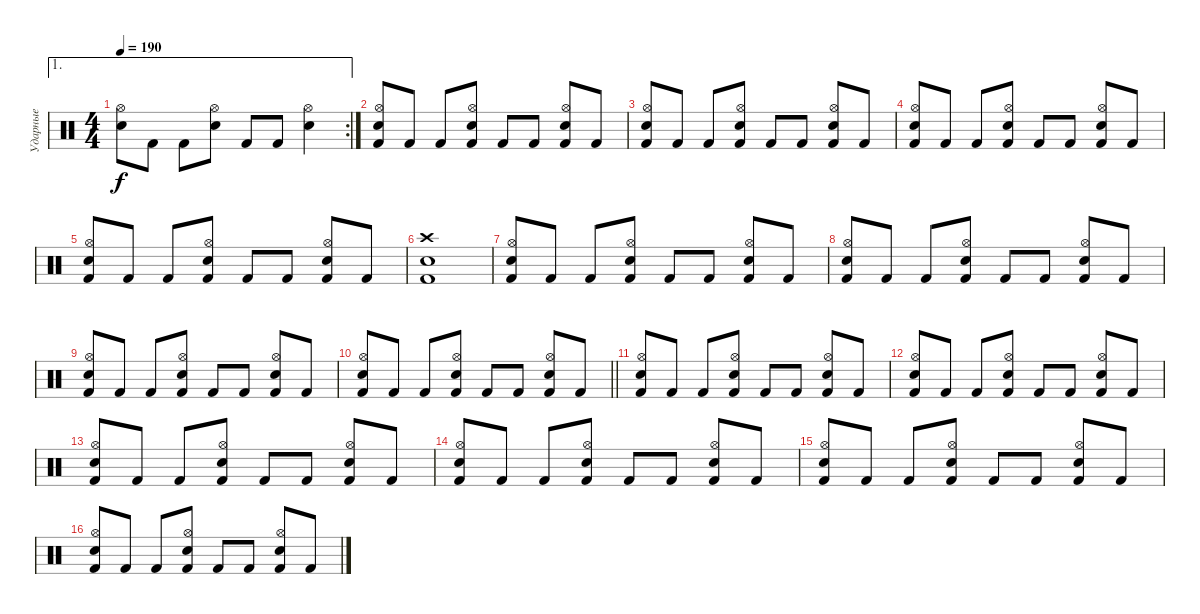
\track ("Ударные" "Ударные") {instrument percussion}
\staff {score}
\articulation defaults
\ae 1
\rc 2
\ts (4 4)
\tempo 190
\clef neutral
\ks c
("Snare (hit) 2" "Hi-Hat (open)").8{dy f} "Kick (hit) 2".8 "Kick (hit) 2".8 ("Snare (hit) 2" "Hi-Hat (open)").8 "Kick (hit) 2".8 "Kick (hit) 2".8 ("Snare (hit) 2" "Hi-Hat (open)").4 |
("Kick (hit) 2" "Snare (hit) 2" "Hi-Hat (open)").8 "Kick (hit) 2".8 "Kick (hit) 2".8 ("Kick (hit) 2" "Snare (hit) 2" "Hi-Hat (open)").8 "Kick (hit) 2".8 "Kick (hit) 2".8 ("Kick (hit) 2" "Snare (hit) 2" "Hi-Hat (open)").8 "Kick (hit) 2".8 |
("Kick (hit) 2" "Snare (hit) 2" "Hi-Hat (open)").8 "Kick (hit) 2".8 "Kick (hit) 2".8 ("Kick (hit) 2" "Snare (hit) 2" "Hi-Hat (open)").8 "Kick (hit) 2".8 "Kick (hit) 2".8 ("Kick (hit) 2" "Snare (hit) 2" "Hi-Hat (open)").8 "Kick (hit) 2".8 |
("Kick (hit) 2" "Snare (hit) 2" "Hi-Hat (open)").8 "Kick (hit) 2".8 "Kick (hit) 2".8 ("Kick (hit) 2" "Snare (hit) 2" "Hi-Hat (open)").8 "Kick (hit) 2".8 "Kick (hit) 2".8 ("Kick (hit) 2" "Snare (hit) 2" "Hi-Hat (open)").8 "Kick (hit) 2".8 |
("Kick (hit) 2" "Snare (hit) 2" "Hi-Hat (open)").8 "Kick (hit) 2".8 "Kick (hit) 2".8 ("Kick (hit) 2" "Snare (hit) 2" "Hi-Hat (open)").8 "Kick (hit) 2".8 "Kick (hit) 2".8 ("Kick (hit) 2" "Snare (hit) 2" "Hi-Hat (open)").8 "Kick (hit) 2".8 |
("Kick (hit) 2" "Snare (hit) 2" "Crash high (hit)").1 |
("Kick (hit) 2" "Snare (hit) 2" "Hi-Hat (open)").8 "Kick (hit) 2".8 "Kick (hit) 2".8 ("Kick (hit) 2" "Snare (hit) 2" "Hi-Hat (open)").8 "Kick (hit) 2".8 "Kick (hit) 2".8 ("Kick (hit) 2" "Snare (hit) 2" "Hi-Hat (open)").8 "Kick (hit) 2".8 |
("Kick (hit) 2" "Snare (hit) 2" "Hi-Hat (open)").8 "Kick (hit) 2".8 "Kick (hit) 2".8 ("Kick (hit) 2" "Snare (hit) 2" "Hi-Hat (open)").8 "Kick (hit) 2".8 "Kick (hit) 2".8 ("Kick (hit) 2" "Snare (hit) 2" "Hi-Hat (open)").8 "Kick (hit) 2".8 |
("Kick (hit) 2" "Snare (hit) 2" "Hi-Hat (open)").8 "Kick (hit) 2".8 "Kick (hit) 2".8 ("Kick (hit) 2" "Snare (hit) 2" "Hi-Hat (open)").8 "Kick (hit) 2".8 "Kick (hit) 2".8 ("Kick (hit) 2" "Snare (hit) 2" "Hi-Hat (open)").8 "Kick (hit) 2".8 |
\barLineRight lightlight
("Kick (hit) 2" "Snare (hit) 2" "Hi-Hat (open)").8 "Kick (hit) 2".8 "Kick (hit) 2".8 ("Kick (hit) 2" "Snare (hit) 2" "Hi-Hat (open)").8 "Kick (hit) 2".8 "Kick (hit) 2".8 ("Kick (hit) 2" "Snare (hit) 2" "Hi-Hat (open)").8 "Kick (hit) 2".8 |
("Kick (hit) 2" "Snare (hit) 2" "Hi-Hat (open)").8 "Kick (hit) 2".8 "Kick (hit) 2".8 ("Kick (hit) 2" "Snare (hit) 2" "Hi-Hat (open)").8 "Kick (hit) 2".8 "Kick (hit) 2".8 ("Kick (hit) 2" "Snare (hit) 2" "Hi-Hat (open)").8 "Kick (hit) 2".8 |
("Kick (hit) 2" "Snare (hit) 2" "Hi-Hat (open)").8 "Kick (hit) 2".8 "Kick (hit) 2".8 ("Kick (hit) 2" "Snare (hit) 2" "Hi-Hat (open)").8 "Kick (hit) 2".8 "Kick (hit) 2".8 ("Kick (hit) 2" "Snare (hit) 2" "Hi-Hat (open)").8 "Kick (hit) 2".8 |
("Kick (hit) 2" "Snare (hit) 2" "Hi-Hat (open)").8 "Kick (hit) 2".8 "Kick (hit) 2".8 ("Kick (hit) 2" "Snare (hit) 2" "Hi-Hat (open)").8 "Kick (hit) 2".8 "Kick (hit) 2".8 ("Kick (hit) 2" "Snare (hit) 2" "Hi-Hat (open)").8 "Kick (hit) 2".8 |
("Kick (hit) 2" "Snare (hit) 2" "Hi-Hat (open)").8 "Kick (hit) 2".8 "Kick (hit) 2".8 ("Kick (hit) 2" "Snare (hit) 2" "Hi-Hat (open)").8 "Kick (hit) 2".8 "Kick (hit) 2".8 ("Kick (hit) 2" "Snare (hit) 2" "Hi-Hat (open)").8 "Kick (hit) 2".8 |
("Kick (hit) 2" "Snare (hit) 2" "Hi-Hat (open)").8 "Kick (hit) 2".8 "Kick (hit) 2".8 ("Kick (hit) 2" "Snare (hit) 2" "Hi-Hat (open)").8 "Kick (hit) 2".8 "Kick (hit) 2".8 ("Kick (hit) 2" "Snare (hit) 2" "Hi-Hat (open)").8 "Kick (hit) 2".8 |
("Kick (hit) 2" "Snare (hit) 2" "Hi-Hat (open)").8 "Kick (hit) 2".8 "Kick (hit) 2".8 ("Kick (hit) 2" "Snare (hit) 2" "Hi-Hat (open)").8 "Kick (hit) 2".8 "Kick (hit) 2".8 ("Kick (hit) 2" "Snare (hit) 2" "Hi-Hat (open)").8 "Kick (hit) 2".8
